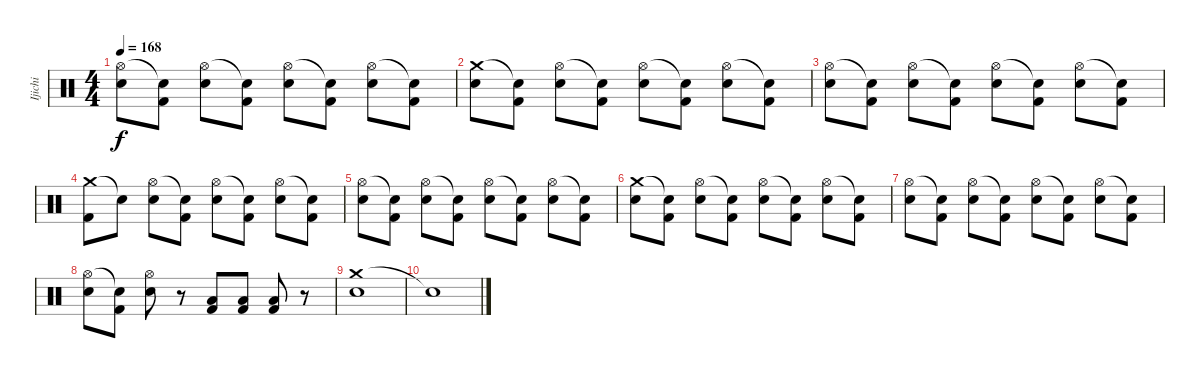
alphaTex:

\track ("Ijichi" "Ijichi") {instrument percussion}
\staff {score}
\articulation defaults
\ts (4 4)
\tempo 168
\clef neutral
\ks c
("Hi-Hat (open)" "Electric Snare (hit)").8{dy f} ("Snare (hit)"{t} "Kick (hit) 2").8 ("Hi-Hat (open)" "Electric Snare (hit)").8 ("Snare (hit)"{t} "Kick (hit) 2").8 ("Hi-Hat (open)" "Electric Snare (hit)").8 ("Snare (hit)"{t} "Kick (hit) 2").8 ("Hi-Hat (open)" "Electric Snare (hit)").8 ("Snare (hit)"{t} "Kick (hit) 2").8 |
("Crash medium (hit)" "Electric Snare (hit)").8 ("Snare (hit)"{t} "Kick (hit) 2").8 ("Hi-Hat (open)" "Electric Snare (hit)").8 ("Snare (hit)"{t} "Kick (hit) 2").8 ("Hi-Hat (open)" "Electric Snare (hit)").8 ("Snare (hit)"{t} "Kick (hit) 2").8 ("Hi-Hat (open)" "Electric Snare (hit)").8 ("Snare (hit)"{t} "Kick (hit) 2").8 |
("Hi-Hat (open)" "Electric Snare (hit)").8 ("Snare (hit)"{t} "Kick (hit) 2").8 ("Hi-Hat (open)" "Electric Snare (hit)").8 ("Snare (hit)"{t} "Kick (hit) 2").8 ("Hi-Hat (open)" "Electric Snare (hit)").8 ("Snare (hit)"{t} "Kick (hit) 2").8 ("Hi-Hat (open)" "Electric Snare (hit)").8 ("Snare (hit)"{t} "Kick (hit) 2").8 |
("Crash medium (hit)" "Kick (hit) 2").8 "Snare (hit)"{t}.8 ("Hi-Hat (open)" "Electric Snare (hit)").8 ("Snare (hit)"{t} "Kick (hit) 2").8 ("Hi-Hat (open)" "Electric Snare (hit)").8 ("Snare (hit)"{t} "Kick (hit) 2").8 ("Hi-Hat (open)" "Electric Snare (hit)").8 ("Snare (hit)"{t} "Kick (hit) 2").8 |
("Hi-Hat (open)" "Electric Snare (hit)").8 ("Snare (hit)"{t} "Kick (hit) 2").8 ("Hi-Hat (open)" "Electric Snare (hit)").8 ("Snare (hit)"{t} "Kick (hit) 2").8 ("Hi-Hat (open)" "Electric Snare (hit)").8 ("Snare (hit)"{t} "Kick (hit) 2").8 ("Hi-Hat (open)" "Electric Snare (hit)").8 ("Snare (hit)"{t} "Kick (hit) 2").8 |
("Crash medium (hit)" "Electric Snare (hit)").8 ("Snare (hit)"{t} "Kick (hit) 2").8 ("Hi-Hat (open)" "Electric Snare (hit)").8 ("Snare (hit)"{t} "Kick (hit) 2").8 ("Hi-Hat (open)" "Electric Snare (hit)").8 ("Snare (hit)"{t} "Kick (hit) 2").8 ("Hi-Hat (open)" "Electric Snare (hit)").8 ("Snare (hit)"{t} "Kick (hit) 2").8 |
("Hi-Hat (open)" "Electric Snare (hit)").8 ("Snare (hit)"{t} "Kick (hit) 2").8 ("Hi-Hat (open)" "Electric Snare (hit)").8 ("Snare (hit)"{t} "Kick (hit) 2").8 ("Hi-Hat (open)" "Electric Snare (hit)").8 ("Snare (hit)"{t} "Kick (hit) 2").8 ("Hi-Hat (open)" "Electric Snare (hit)").8 ("Snare (hit)"{t} "Kick (hit) 2").8 |
("Hi-Hat (open)" "Electric Snare (hit)").8 ("Snare (hit)"{t} "Kick (hit) 2").8 ("Hi-Hat (open)" "Electric Snare (hit)").8 r.8 ("Low Floor Tom (hit)" "Kick (hit) 2").8 ("Low Floor Tom (hit)" "Kick (hit) 2").8 ("Low Floor Tom (hit)" "Kick (hit) 2").8 r.8 |
("Crash medium (hit)" "Electric Snare (hit)").1 |
"Snare (hit)"{t}.1
